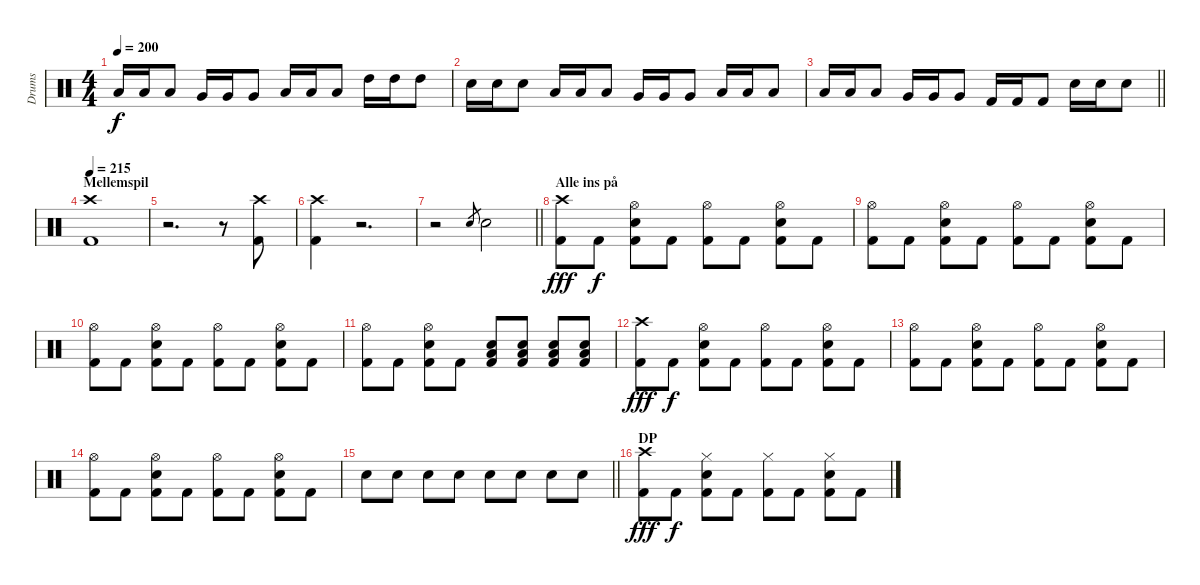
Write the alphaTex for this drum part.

\track ("Drums" "Drums") {instrument percussion}
\staff {score}
\articulation defaults
\ts (4 4)
\tempo 200
\clef neutral
\ks c "Low Floor Tom (hit)".16{dy f} "Low Floor Tom (hit)".16 "Low Floor Tom (hit)".8 "Very Low Tom (hit)".16 "Very Low Tom (hit)".16 "Very Low Tom (hit)".8 "Low Tom (hit)".16 "Low Tom (hit)".16 "Low Tom (hit)".8 "High Tom (hit)".16 "High Tom (hit)".16 "High Tom (hit)".8
|
"Snare (hit) 2".16 "Snare (hit) 2".16 "Snare (hit) 2".8 "Low Tom (hit)".16 "Low Tom (hit)".16 "Low Tom (hit)".8 "Very Low Tom (hit)".16 "Very Low Tom (hit)".16 "Very Low Tom (hit)".8 "Low Floor Tom (hit)".16 "Low Floor Tom (hit)".16 "Low Floor Tom (hit)".8 |
\barLineRight lightlight "Low Floor Tom (hit)".16 "Low Floor Tom (hit)".16 "Low Floor Tom (hit)".8 "Very Low Tom (hit)".16 "Very Low Tom (hit)".16 "Very Low Tom (hit)".8 "Kick (hit) 2".16 "Kick (hit) 2".16 "Kick (hit) 2".8 "Snare (hit) 2".16 "Snare (hit) 2".16 "Snare (hit) 2".8
|
\section ("" "Mellemspil")
\tempo 215
("Crash high (hit)" "Kick (hit) 2").1 |
r.2{d} r.8 ("Crash high (hit)" "Kick (hit) 2").8 |
("Crash high (hit)" "Kick (hit) 2").4 r.2{d} |
\barLineRight lightlight
r.2 "Snare (hit) 2".8{gr} "Snare (hit) 2".2 |
\section ("" "Alle ins på")
("Crash high (hit)" "Kick (hit) 2").8{dy fff} "Kick (hit) 2".8{dy f} ("Hi-Hat (open)" "Snare (hit) 2" "Kick (hit) 2").8 "Kick (hit) 2".8 ("Hi-Hat (open)" "Kick (hit) 2").8 "Kick (hit) 2".8 ("Hi-Hat (open)" "Snare (hit) 2" "Kick (hit) 2").8 "Kick (hit) 2".8 |
("Hi-Hat (open)" "Kick (hit) 2").8 "Kick (hit) 2".8 ("Hi-Hat (open)" "Snare (hit) 2" "Kick (hit) 2").8 "Kick (hit) 2".8 ("Hi-Hat (open)" "Kick (hit) 2").8 "Kick (hit) 2".8 ("Hi-Hat (open)" "Snare (hit) 2" "Kick (hit) 2").8 "Kick (hit) 2".8 |
("Hi-Hat (open)" "Kick (hit) 2").8 "Kick (hit) 2".8 ("Hi-Hat (open)" "Snare (hit) 2" "Kick (hit) 2").8 "Kick (hit) 2".8 ("Hi-Hat (open)" "Kick (hit) 2").8 "Kick (hit) 2".8 ("Hi-Hat (open)" "Snare (hit) 2" "Kick (hit) 2").8 "Kick (hit) 2".8 |
("Hi-Hat (open)" "Kick (hit) 2").8 "Kick (hit) 2".8 ("Hi-Hat (open)" "Snare (hit) 2" "Kick (hit) 2").8 "Kick (hit) 2".8 ("Low Tom (hit)" "Snare (hit) 2" "Kick (hit) 2").8 ("Low Tom (hit)" "Snare (hit) 2" "Kick (hit) 2").8 ("Low Tom (hit)" "Snare (hit) 2" "Kick (hit) 2").8 ("Low Tom (hit)" "Snare (hit) 2" "Kick (hit) 2").8 |
("Crash high (hit)" "Kick (hit) 2").8{dy fff} "Kick (hit) 2".8{dy f} ("Hi-Hat (open)" "Snare (hit) 2" "Kick (hit) 2").8 "Kick (hit) 2".8 ("Hi-Hat (open)" "Kick (hit) 2").8 "Kick (hit) 2".8 ("Hi-Hat (open)" "Snare (hit) 2" "Kick (hit) 2").8 "Kick (hit) 2".8 |
("Hi-Hat (open)" "Kick (hit) 2").8 "Kick (hit) 2".8 ("Hi-Hat (open)" "Snare (hit) 2" "Kick (hit) 2").8 "Kick (hit) 2".8 ("Hi-Hat (open)" "Kick (hit) 2").8 "Kick (hit) 2".8 ("Hi-Hat (open)" "Snare (hit) 2" "Kick (hit) 2").8 "Kick (hit) 2".8 |
("Hi-Hat (open)" "Kick (hit) 2").8 "Kick (hit) 2".8 ("Hi-Hat (open)" "Snare (hit) 2" "Kick (hit) 2").8 "Kick (hit) 2".8 ("Hi-Hat (open)" "Kick (hit) 2").8 "Kick (hit) 2".8 ("Hi-Hat (open)" "Snare (hit) 2" "Kick (hit) 2").8 "Kick (hit) 2".8 |
\barLineRight lightlight "Snare (hit) 2".8 "Snare (hit) 2".8 "Snare (hit) 2".8 "Snare (hit) 2".8 "Snare (hit) 2".8 "Snare (hit) 2".8 "Snare (hit) 2".8 "Snare (hit) 2".8
|
\section ("" "DP")
("Crash high (hit)" "Kick (hit) 2").8{dy fff} "Kick (hit) 2".8{dy f} ("Hi-Hat (closed)" "Snare (hit) 2" "Kick (hit) 2").8 "Kick (hit) 2".8 ("Hi-Hat (closed)" "Kick (hit) 2").8 "Kick (hit) 2".8 ("Hi-Hat (closed)" "Snare (hit) 2" "Kick (hit) 2").8 "Kick (hit) 2".8
